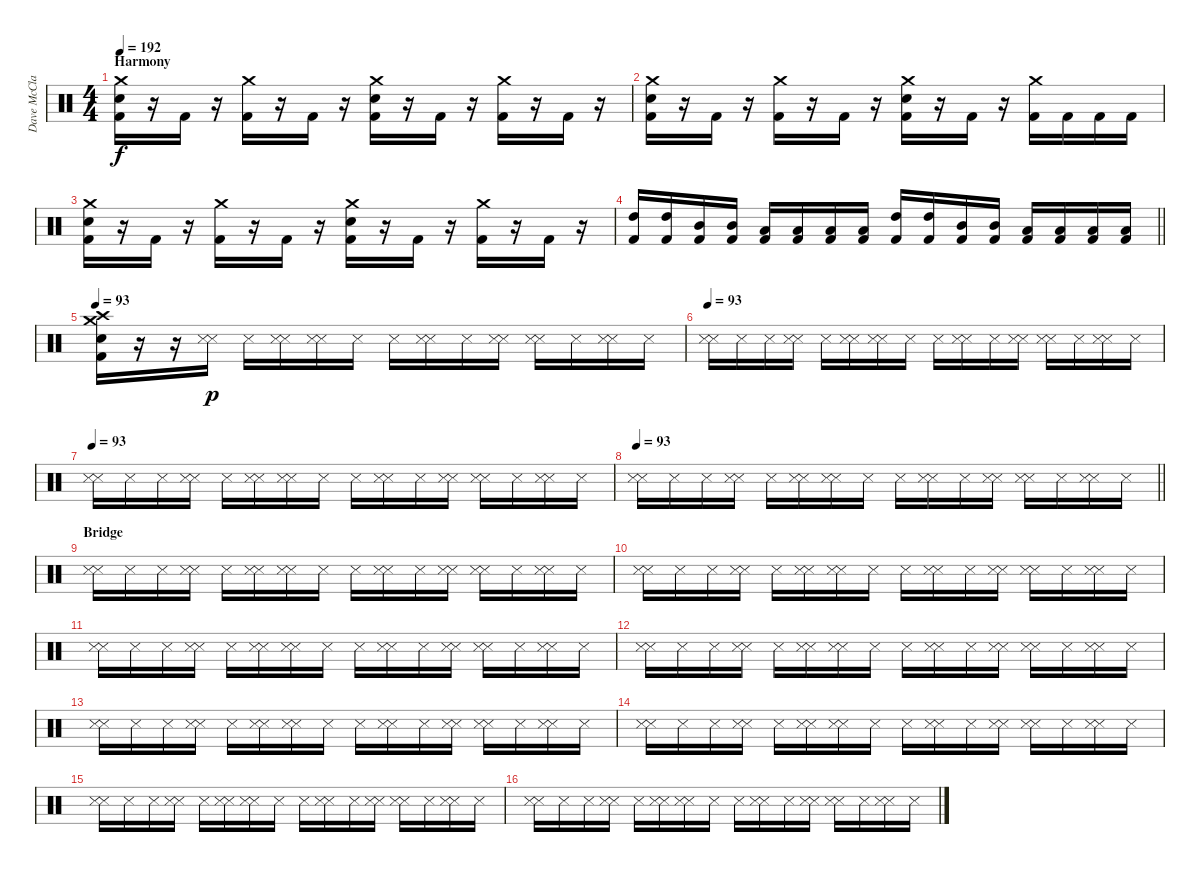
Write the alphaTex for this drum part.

\track ("Dave McClain" "Dave McCla") {instrument percussion}
\staff {score}
\articulation defaults
\ts (4 4)
\section ("" "Harmony")
\tempo 192
\clef neutral
\ks c
("Crash medium (hit)" "Snare (hit) 2" "Kick (hit) 2").16{dy f} r.16 "Kick (hit) 2".16 r.16 ("Crash medium (hit)" "Kick (hit) 2").16 r.16 "Kick (hit) 2".16 r.16 ("Crash medium (hit)" "Snare (hit) 2" "Kick (hit) 2").16 r.16 "Kick (hit) 2".16 r.16 ("Crash medium (hit)" "Kick (hit) 2").16 r.16 "Kick (hit) 2".16 r.16 |
("Crash medium (hit)" "Snare (hit) 2" "Kick (hit) 2").16 r.16 "Kick (hit) 2".16 r.16 ("Crash medium (hit)" "Kick (hit) 2").16 r.16 "Kick (hit) 2".16 r.16 ("Crash medium (hit)" "Snare (hit) 2" "Kick (hit) 2").16 r.16 "Kick (hit) 2".16 r.16 ("Crash medium (hit)" "Kick (hit) 2").16 "Kick (hit) 2".16 "Kick (hit) 2".16 "Kick (hit) 2".16 |
("Crash medium (hit)" "Snare (hit) 2" "Kick (hit) 2").16 r.16 "Kick (hit) 2".16 r.16 ("Crash medium (hit)" "Kick (hit) 2").16 r.16 "Kick (hit) 2".16 r.16 ("Crash medium (hit)" "Snare (hit) 2" "Kick (hit) 2").16 r.16 "Kick (hit) 2".16 r.16 ("Crash medium (hit)" "Kick (hit) 2").16 r.16 "Kick (hit) 2".16 r.16 |
\barLineRight lightlight
("High Tom (hit)" "Kick (hit) 2").16 ("High Tom (hit)" "Kick (hit) 2").16 ("Mid Tom (hit)" "Kick (hit) 2").16 ("Mid Tom (hit)" "Kick (hit) 2").16 ("Low Tom (hit)" "Kick (hit) 2").16 ("Low Tom (hit)" "Kick (hit) 2").16 ("Low Tom (hit)" "Kick (hit) 2").16 ("Low Tom (hit)" "Kick (hit) 2").16 ("High Tom (hit)" "Kick (hit) 2").16 ("High Tom (hit)" "Kick (hit) 2").16 ("Mid Tom (hit)" "Kick (hit) 2").16 ("Mid Tom (hit)" "Kick (hit) 2").16 ("Low Tom (hit)" "Kick (hit) 2").16 ("Low Tom (hit)" "Kick (hit) 2").16 ("Low Tom (hit)" "Kick (hit) 2").16 ("Low Tom (hit)" "Kick (hit) 2").16 |
\tempo 89
\tempo 93
("Crash medium (hit)" "Crash high (hit)" "Snare (hit) 2" "Kick (hit) 2").16 r.16 r.16 ("Snare (side stick) 3" "Snare (side stick) 3").16{dy p} "Snare (side stick) 3".16 ("Snare (side stick) 3" "Snare (side stick) 3").16 ("Snare (side stick) 3" "Snare (side stick) 3").16 "Snare (side stick) 3".16 "Snare (side stick) 3".16 ("Snare (side stick) 3" "Snare (side stick) 3").16 "Snare (side stick) 3".16 ("Snare (side stick) 3" "Snare (side stick) 3").16 ("Snare (side stick) 3" "Snare (side stick) 3").16 "Snare (side stick) 3".16 ("Snare (side stick) 3" "Snare (side stick) 3").16 "Snare (side stick) 3".16 |
\tempo 93
("Snare (side stick) 3" "Snare (side stick) 3").16 "Snare (side stick) 3".16 "Snare (side stick) 3".16 ("Snare (side stick) 3" "Snare (side stick) 3").16 "Snare (side stick) 3".16 ("Snare (side stick) 3" "Snare (side stick) 3").16 ("Snare (side stick) 3" "Snare (side stick) 3").16 "Snare (side stick) 3".16 "Snare (side stick) 3".16 ("Snare (side stick) 3" "Snare (side stick) 3").16 "Snare (side stick) 3".16 ("Snare (side stick) 3" "Snare (side stick) 3").16 ("Snare (side stick) 3" "Snare (side stick) 3").16 "Snare (side stick) 3".16 ("Snare (side stick) 3" "Snare (side stick) 3").16 "Snare (side stick) 3".16 |
\tempo 93
("Snare (side stick) 3" "Snare (side stick) 3").16 "Snare (side stick) 3".16 "Snare (side stick) 3".16 ("Snare (side stick) 3" "Snare (side stick) 3").16 "Snare (side stick) 3".16 ("Snare (side stick) 3" "Snare (side stick) 3").16 ("Snare (side stick) 3" "Snare (side stick) 3").16 "Snare (side stick) 3".16 "Snare (side stick) 3".16 ("Snare (side stick) 3" "Snare (side stick) 3").16 "Snare (side stick) 3".16 ("Snare (side stick) 3" "Snare (side stick) 3").16 ("Snare (side stick) 3" "Snare (side stick) 3").16 "Snare (side stick) 3".16 ("Snare (side stick) 3" "Snare (side stick) 3").16 "Snare (side stick) 3".16 |
\tempo 93
\barLineRight lightlight
("Snare (side stick) 3" "Snare (side stick) 3").16 "Snare (side stick) 3".16 "Snare (side stick) 3".16 ("Snare (side stick) 3" "Snare (side stick) 3").16 "Snare (side stick) 3".16 ("Snare (side stick) 3" "Snare (side stick) 3").16 ("Snare (side stick) 3" "Snare (side stick) 3").16 "Snare (side stick) 3".16 "Snare (side stick) 3".16 ("Snare (side stick) 3" "Snare (side stick) 3").16 "Snare (side stick) 3".16 ("Snare (side stick) 3" "Snare (side stick) 3").16 ("Snare (side stick) 3" "Snare (side stick) 3").16 "Snare (side stick) 3".16 ("Snare (side stick) 3" "Snare (side stick) 3").16 "Snare (side stick) 3".16 |
\section ("" "Bridge")
("Snare (side stick) 3" "Snare (side stick) 3").16 "Snare (side stick) 3".16 "Snare (side stick) 3".16 ("Snare (side stick) 3" "Snare (side stick) 3").16 "Snare (side stick) 3".16 ("Snare (side stick) 3" "Snare (side stick) 3").16 ("Snare (side stick) 3" "Snare (side stick) 3").16 "Snare (side stick) 3".16 "Snare (side stick) 3".16 ("Snare (side stick) 3" "Snare (side stick) 3").16 "Snare (side stick) 3".16 ("Snare (side stick) 3" "Snare (side stick) 3").16 ("Snare (side stick) 3" "Snare (side stick) 3").16 "Snare (side stick) 3".16 ("Snare (side stick) 3" "Snare (side stick) 3").16 "Snare (side stick) 3".16 |
("Snare (side stick) 3" "Snare (side stick) 3").16 "Snare (side stick) 3".16 "Snare (side stick) 3".16 ("Snare (side stick) 3" "Snare (side stick) 3").16 "Snare (side stick) 3".16 ("Snare (side stick) 3" "Snare (side stick) 3").16 ("Snare (side stick) 3" "Snare (side stick) 3").16 "Snare (side stick) 3".16 "Snare (side stick) 3".16 ("Snare (side stick) 3" "Snare (side stick) 3").16 "Snare (side stick) 3".16 ("Snare (side stick) 3" "Snare (side stick) 3").16 ("Snare (side stick) 3" "Snare (side stick) 3").16 "Snare (side stick) 3".16 ("Snare (side stick) 3" "Snare (side stick) 3").16 "Snare (side stick) 3".16 |
("Snare (side stick) 3" "Snare (side stick) 3").16 "Snare (side stick) 3".16 "Snare (side stick) 3".16 ("Snare (side stick) 3" "Snare (side stick) 3").16 "Snare (side stick) 3".16 ("Snare (side stick) 3" "Snare (side stick) 3").16 ("Snare (side stick) 3" "Snare (side stick) 3").16 "Snare (side stick) 3".16 "Snare (side stick) 3".16 ("Snare (side stick) 3" "Snare (side stick) 3").16 "Snare (side stick) 3".16 ("Snare (side stick) 3" "Snare (side stick) 3").16 ("Snare (side stick) 3" "Snare (side stick) 3").16 "Snare (side stick) 3".16 ("Snare (side stick) 3" "Snare (side stick) 3").16 "Snare (side stick) 3".16 |
("Snare (side stick) 3" "Snare (side stick) 3").16 "Snare (side stick) 3".16 "Snare (side stick) 3".16 ("Snare (side stick) 3" "Snare (side stick) 3").16 "Snare (side stick) 3".16 ("Snare (side stick) 3" "Snare (side stick) 3").16 ("Snare (side stick) 3" "Snare (side stick) 3").16 "Snare (side stick) 3".16 "Snare (side stick) 3".16 ("Snare (side stick) 3" "Snare (side stick) 3").16 "Snare (side stick) 3".16 ("Snare (side stick) 3" "Snare (side stick) 3").16 ("Snare (side stick) 3" "Snare (side stick) 3").16 "Snare (side stick) 3".16 ("Snare (side stick) 3" "Snare (side stick) 3").16 "Snare (side stick) 3".16 |
("Snare (side stick) 3" "Snare (side stick) 3").16 "Snare (side stick) 3".16 "Snare (side stick) 3".16 ("Snare (side stick) 3" "Snare (side stick) 3").16 "Snare (side stick) 3".16 ("Snare (side stick) 3" "Snare (side stick) 3").16 ("Snare (side stick) 3" "Snare (side stick) 3").16 "Snare (side stick) 3".16 "Snare (side stick) 3".16 ("Snare (side stick) 3" "Snare (side stick) 3").16 "Snare (side stick) 3".16 ("Snare (side stick) 3" "Snare (side stick) 3").16 ("Snare (side stick) 3" "Snare (side stick) 3").16 "Snare (side stick) 3".16 ("Snare (side stick) 3" "Snare (side stick) 3").16 "Snare (side stick) 3".16 |
("Snare (side stick) 3" "Snare (side stick) 3").16 "Snare (side stick) 3".16 "Snare (side stick) 3".16 ("Snare (side stick) 3" "Snare (side stick) 3").16 "Snare (side stick) 3".16 ("Snare (side stick) 3" "Snare (side stick) 3").16 ("Snare (side stick) 3" "Snare (side stick) 3").16 "Snare (side stick) 3".16 "Snare (side stick) 3".16 ("Snare (side stick) 3" "Snare (side stick) 3").16 "Snare (side stick) 3".16 ("Snare (side stick) 3" "Snare (side stick) 3").16 ("Snare (side stick) 3" "Snare (side stick) 3").16 "Snare (side stick) 3".16 ("Snare (side stick) 3" "Snare (side stick) 3").16 "Snare (side stick) 3".16 |
("Snare (side stick) 3" "Snare (side stick) 3").16 "Snare (side stick) 3".16 "Snare (side stick) 3".16 ("Snare (side stick) 3" "Snare (side stick) 3").16 "Snare (side stick) 3".16 ("Snare (side stick) 3" "Snare (side stick) 3").16 ("Snare (side stick) 3" "Snare (side stick) 3").16 "Snare (side stick) 3".16 "Snare (side stick) 3".16 ("Snare (side stick) 3" "Snare (side stick) 3").16 "Snare (side stick) 3".16 ("Snare (side stick) 3" "Snare (side stick) 3").16 ("Snare (side stick) 3" "Snare (side stick) 3").16 "Snare (side stick) 3".16 ("Snare (side stick) 3" "Snare (side stick) 3").16 "Snare (side stick) 3".16 |
("Snare (side stick) 3" "Snare (side stick) 3").16 "Snare (side stick) 3".16 "Snare (side stick) 3".16 ("Snare (side stick) 3" "Snare (side stick) 3").16 "Snare (side stick) 3".16 ("Snare (side stick) 3" "Snare (side stick) 3").16 ("Snare (side stick) 3" "Snare (side stick) 3").16 "Snare (side stick) 3".16 "Snare (side stick) 3".16 ("Snare (side stick) 3" "Snare (side stick) 3").16 "Snare (side stick) 3".16 ("Snare (side stick) 3" "Snare (side stick) 3").16 ("Snare (side stick) 3" "Snare (side stick) 3").16 "Snare (side stick) 3".16 ("Snare (side stick) 3" "Snare (side stick) 3").16 "Snare (side stick) 3".16
